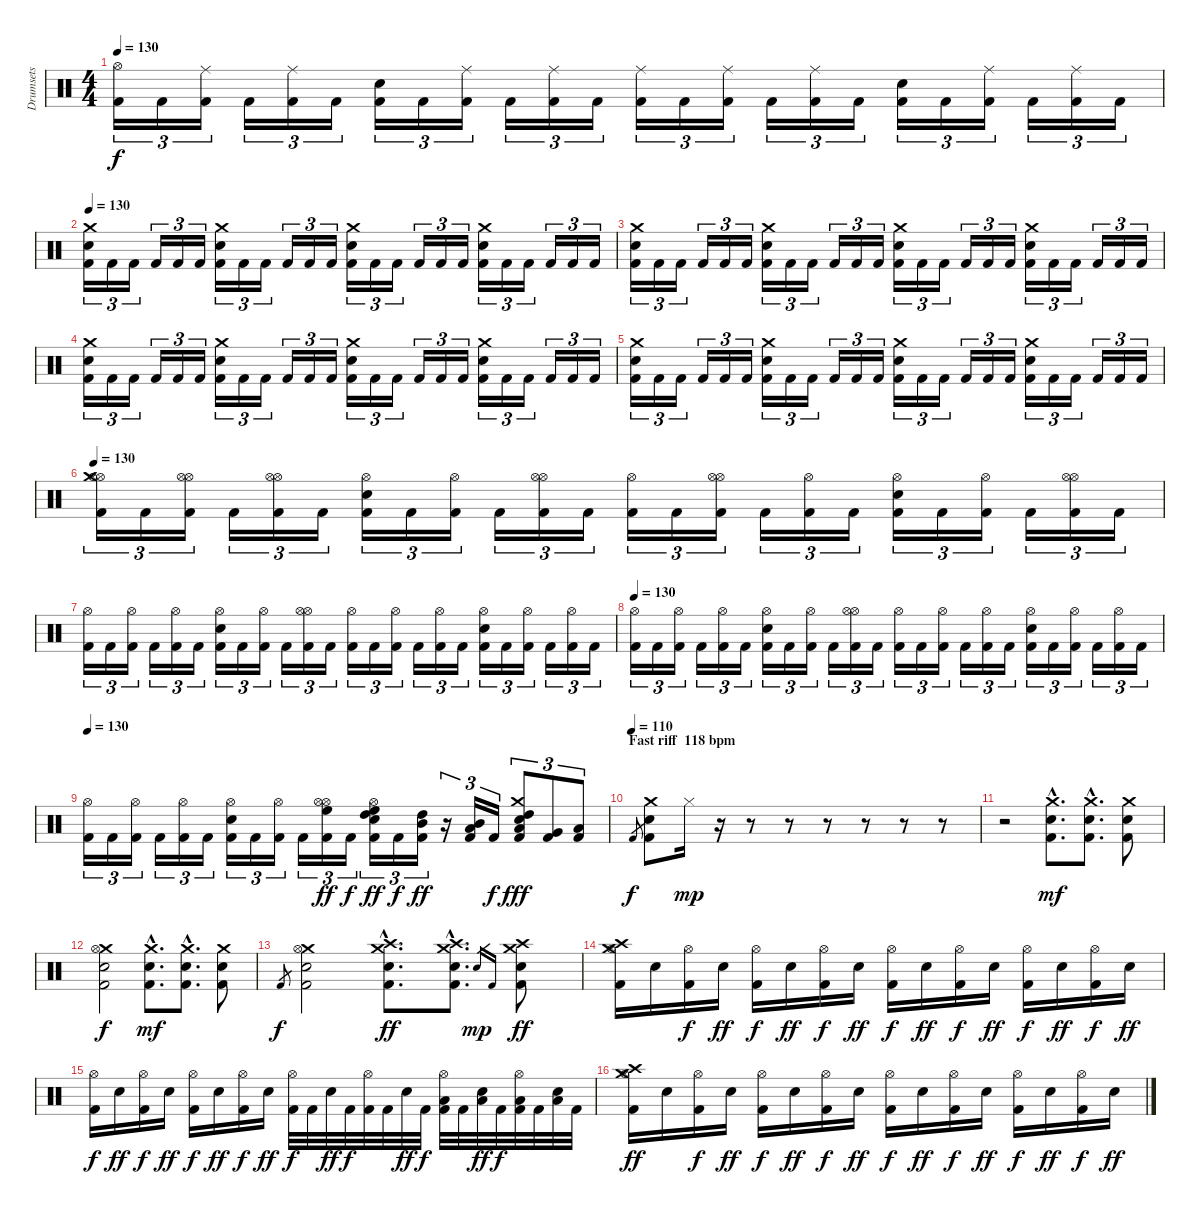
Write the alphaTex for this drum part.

\track ("Drumsets" "Drumsets") {instrument percussion}
\staff {score}
\articulation defaults
\ts (4 4)
\tempo 130
\clef neutral
\ks c
("Hi-Hat (open)" "Kick (hit) 2").16{tu (3 2) dy f} "Kick (hit) 2".16{tu (3 2)} ("Ride (middle)" "Kick (hit) 2").16{tu (3 2)} "Kick (hit) 2".16{tu (3 2)} ("Ride (middle)" "Kick (hit) 2").16{tu (3 2)} "Kick (hit) 2".16{tu (3 2)} ("Snare (hit) 2" "Kick (hit) 2").16{tu (3 2)} "Kick (hit) 2".16{tu (3 2)} ("Ride (middle)" "Kick (hit) 2").16{tu (3 2)} "Kick (hit) 2".16{tu (3 2)} ("Ride (middle)" "Kick (hit) 2").16{tu (3 2)} "Kick (hit) 2".16{tu (3 2)} ("Ride (middle)" "Kick (hit) 2").16{tu (3 2)} "Kick (hit) 2".16{tu (3 2)} ("Ride (middle)" "Kick (hit) 2").16{tu (3 2)} "Kick (hit) 2".16{tu (3 2)} ("Ride (middle)" "Kick (hit) 2").16{tu (3 2)} "Kick (hit) 2".16{tu (3 2)} ("Snare (hit) 2" "Kick (hit) 2").16{tu (3 2)} "Kick (hit) 2".16{tu (3 2)} ("Ride (middle)" "Kick (hit) 2").16{tu (3 2)} "Kick (hit) 2".16{tu (3 2)} ("Ride (middle)" "Kick (hit) 2").16{tu (3 2)} "Kick (hit) 2".16{tu (3 2)} |
\tempo 130
("Kick (hit) 2" "Electric Snare (hit)" "Crash medium (hit)").16{tu (3 2)} "Kick (hit) 2".16{tu (3 2)} "Kick (hit) 2".16{tu (3 2)} "Kick (hit) 2".16{tu (3 2)} "Kick (hit) 2".16{tu (3 2)} "Kick (hit) 2".16{tu (3 2)} ("Kick (hit) 2" "Electric Snare (hit)" "Crash medium (hit)").16{tu (3 2)} "Kick (hit) 2".16{tu (3 2)} "Kick (hit) 2".16{tu (3 2)} "Kick (hit) 2".16{tu (3 2)} "Kick (hit) 2".16{tu (3 2)} "Kick (hit) 2".16{tu (3 2)} ("Kick (hit) 2" "Electric Snare (hit)" "Crash medium (hit)").16{tu (3 2)} "Kick (hit) 2".16{tu (3 2)} "Kick (hit) 2".16{tu (3 2)} "Kick (hit) 2".16{tu (3 2)} "Kick (hit) 2".16{tu (3 2)} "Kick (hit) 2".16{tu (3 2)} ("Kick (hit) 2" "Electric Snare (hit)" "Crash medium (hit)").16{tu (3 2)} "Kick (hit) 2".16{tu (3 2)} "Kick (hit) 2".16{tu (3 2)} "Kick (hit) 2".16{tu (3 2)} "Kick (hit) 2".16{tu (3 2)} "Kick (hit) 2".16{tu (3 2)} |
("Kick (hit) 2" "Electric Snare (hit)" "Crash medium (hit)").16{tu (3 2)} "Kick (hit) 2".16{tu (3 2)} "Kick (hit) 2".16{tu (3 2)} "Kick (hit) 2".16{tu (3 2)} "Kick (hit) 2".16{tu (3 2)} "Kick (hit) 2".16{tu (3 2)} ("Kick (hit) 2" "Electric Snare (hit)" "Crash medium (hit)").16{tu (3 2)} "Kick (hit) 2".16{tu (3 2)} "Kick (hit) 2".16{tu (3 2)} "Kick (hit) 2".16{tu (3 2)} "Kick (hit) 2".16{tu (3 2)} "Kick (hit) 2".16{tu (3 2)} ("Kick (hit) 2" "Electric Snare (hit)" "Crash medium (hit)").16{tu (3 2)} "Kick (hit) 2".16{tu (3 2)} "Kick (hit) 2".16{tu (3 2)} "Kick (hit) 2".16{tu (3 2)} "Kick (hit) 2".16{tu (3 2)} "Kick (hit) 2".16{tu (3 2)} ("Kick (hit) 2" "Electric Snare (hit)" "Crash medium (hit)").16{tu (3 2)} "Kick (hit) 2".16{tu (3 2)} "Kick (hit) 2".16{tu (3 2)} "Kick (hit) 2".16{tu (3 2)} "Kick (hit) 2".16{tu (3 2)} "Kick (hit) 2".16{tu (3 2)} |
("Kick (hit) 2" "Electric Snare (hit)" "Crash medium (hit)").16{tu (3 2)} "Kick (hit) 2".16{tu (3 2)} "Kick (hit) 2".16{tu (3 2)} "Kick (hit) 2".16{tu (3 2)} "Kick (hit) 2".16{tu (3 2)} "Kick (hit) 2".16{tu (3 2)} ("Kick (hit) 2" "Electric Snare (hit)" "Crash medium (hit)").16{tu (3 2)} "Kick (hit) 2".16{tu (3 2)} "Kick (hit) 2".16{tu (3 2)} "Kick (hit) 2".16{tu (3 2)} "Kick (hit) 2".16{tu (3 2)} "Kick (hit) 2".16{tu (3 2)} ("Kick (hit) 2" "Electric Snare (hit)" "Crash medium (hit)").16{tu (3 2)} "Kick (hit) 2".16{tu (3 2)} "Kick (hit) 2".16{tu (3 2)} "Kick (hit) 2".16{tu (3 2)} "Kick (hit) 2".16{tu (3 2)} "Kick (hit) 2".16{tu (3 2)} ("Kick (hit) 2" "Electric Snare (hit)" "Crash medium (hit)").16{tu (3 2)} "Kick (hit) 2".16{tu (3 2)} "Kick (hit) 2".16{tu (3 2)} "Kick (hit) 2".16{tu (3 2)} "Kick (hit) 2".16{tu (3 2)} "Kick (hit) 2".16{tu (3 2)} |
("Kick (hit) 2" "Electric Snare (hit)" "Crash medium (hit)").16{tu (3 2)} "Kick (hit) 2".16{tu (3 2)} "Kick (hit) 2".16{tu (3 2)} "Kick (hit) 2".16{tu (3 2)} "Kick (hit) 2".16{tu (3 2)} "Kick (hit) 2".16{tu (3 2)} ("Kick (hit) 2" "Electric Snare (hit)" "Crash medium (hit)").16{tu (3 2)} "Kick (hit) 2".16{tu (3 2)} "Kick (hit) 2".16{tu (3 2)} "Kick (hit) 2".16{tu (3 2)} "Kick (hit) 2".16{tu (3 2)} "Kick (hit) 2".16{tu (3 2)} ("Kick (hit) 2" "Electric Snare (hit)" "Crash medium (hit)").16{tu (3 2)} "Kick (hit) 2".16{tu (3 2)} "Kick (hit) 2".16{tu (3 2)} "Kick (hit) 2".16{tu (3 2)} "Kick (hit) 2".16{tu (3 2)} "Kick (hit) 2".16{tu (3 2)} ("Kick (hit) 2" "Electric Snare (hit)" "Crash medium (hit)").16{tu (3 2)} "Kick (hit) 2".16{tu (3 2)} "Kick (hit) 2".16{tu (3 2)} "Kick (hit) 2".16{tu (3 2)} "Kick (hit) 2".16{tu (3 2)} "Kick (hit) 2".16{tu (3 2)} |
\tempo 130
("Hi-Hat (open)" "Hi-Hat (open)" "Crash medium (hit)" "Kick (hit) 2").16{tu (3 2)} "Kick (hit) 2".16{tu (3 2)} ("Hi-Hat (open)" "Hi-Hat (open)" "Kick (hit) 2").16{tu (3 2)} "Kick (hit) 2".16{tu (3 2)} ("Hi-Hat (open)" "Hi-Hat (open)" "Kick (hit) 2").16{tu (3 2)} "Kick (hit) 2".16{tu (3 2)} ("Snare (hit) 2" "Hi-Hat (open)" "Kick (hit) 2").16{tu (3 2)} "Kick (hit) 2".16{tu (3 2)} ("Hi-Hat (open)" "Kick (hit) 2").16{tu (3 2)} "Kick (hit) 2".16{tu (3 2)} ("Hi-Hat (open)" "Hi-Hat (open)" "Kick (hit) 2").16{tu (3 2)} "Kick (hit) 2".16{tu (3 2)} ("Hi-Hat (open)" "Kick (hit) 2").16{tu (3 2)} "Kick (hit) 2".16{tu (3 2)} ("Hi-Hat (open)" "Hi-Hat (open)" "Kick (hit) 2").16{tu (3 2)} "Kick (hit) 2".16{tu (3 2)} ("Hi-Hat (open)" "Kick (hit) 2").16{tu (3 2)} "Kick (hit) 2".16{tu (3 2)} ("Snare (hit) 2" "Hi-Hat (open)" "Kick (hit) 2").16{tu (3 2)} "Kick (hit) 2".16{tu (3 2)} ("Hi-Hat (open)" "Kick (hit) 2").16{tu (3 2)} "Kick (hit) 2".16{tu (3 2)} ("Hi-Hat (open)" "Hi-Hat (open)" "Kick (hit) 2").16{tu (3 2)} "Kick (hit) 2".16{tu (3 2)} |
("Hi-Hat (open)" "Kick (hit) 2").16{tu (3 2)} "Kick (hit) 2".16{tu (3 2)} ("Hi-Hat (open)" "Kick (hit) 2").16{tu (3 2)} "Kick (hit) 2".16{tu (3 2)} ("Hi-Hat (open)" "Kick (hit) 2").16{tu (3 2)} "Kick (hit) 2".16{tu (3 2)} ("Snare (hit) 2" "Hi-Hat (open)" "Kick (hit) 2").16{tu (3 2)} "Kick (hit) 2".16{tu (3 2)} ("Hi-Hat (open)" "Kick (hit) 2").16{tu (3 2)} "Kick (hit) 2".16{tu (3 2)} ("Hi-Hat (open)" "Hi-Hat (open)" "Kick (hit) 2").16{tu (3 2)} "Kick (hit) 2".16{tu (3 2)} ("Hi-Hat (open)" "Kick (hit) 2").16{tu (3 2)} "Kick (hit) 2".16{tu (3 2)} ("Hi-Hat (open)" "Kick (hit) 2").16{tu (3 2)} "Kick (hit) 2".16{tu (3 2)} ("Hi-Hat (open)" "Kick (hit) 2").16{tu (3 2)} "Kick (hit) 2".16{tu (3 2)} ("Snare (hit) 2" "Hi-Hat (open)" "Kick (hit) 2").16{tu (3 2)} "Kick (hit) 2".16{tu (3 2)} ("Hi-Hat (open)" "Kick (hit) 2").16{tu (3 2)} "Kick (hit) 2".16{tu (3 2)} ("Hi-Hat (open)" "Kick (hit) 2").16{tu (3 2)} "Kick (hit) 2".16{tu (3 2)} |
\tempo 130
("Hi-Hat (open)" "Kick (hit) 2").16{tu (3 2)} "Kick (hit) 2".16{tu (3 2)} ("Hi-Hat (open)" "Kick (hit) 2").16{tu (3 2)} "Kick (hit) 2".16{tu (3 2)} ("Hi-Hat (open)" "Kick (hit) 2").16{tu (3 2)} "Kick (hit) 2".16{tu (3 2)} ("Snare (hit) 2" "Hi-Hat (open)" "Kick (hit) 2").16{tu (3 2)} "Kick (hit) 2".16{tu (3 2)} ("Hi-Hat (open)" "Kick (hit) 2").16{tu (3 2)} "Kick (hit) 2".16{tu (3 2)} ("Hi-Hat (open)" "Hi-Hat (open)" "Kick (hit) 2").16{tu (3 2)} "Kick (hit) 2".16{tu (3 2)} ("Hi-Hat (open)" "Kick (hit) 2").16{tu (3 2)} "Kick (hit) 2".16{tu (3 2)} ("Hi-Hat (open)" "Kick (hit) 2").16{tu (3 2)} "Kick (hit) 2".16{tu (3 2)} ("Hi-Hat (open)" "Kick (hit) 2").16{tu (3 2)} "Kick (hit) 2".16{tu (3 2)} ("Snare (hit) 2" "Hi-Hat (open)" "Kick (hit) 2").16{tu (3 2)} "Kick (hit) 2".16{tu (3 2)} ("Hi-Hat (open)" "Kick (hit) 2").16{tu (3 2)} "Kick (hit) 2".16{tu (3 2)} ("Hi-Hat (open)" "Kick (hit) 2").16{tu (3 2)} "Kick (hit) 2".16{tu (3 2)} |
\tempo 130
("Hi-Hat (open)" "Kick (hit) 2").16{tu (3 2)} "Kick (hit) 2".16{tu (3 2)} ("Hi-Hat (open)" "Kick (hit) 2").16{tu (3 2)} "Kick (hit) 2".16{tu (3 2)} ("Hi-Hat (open)" "Kick (hit) 2").16{tu (3 2)} "Kick (hit) 2".16{tu (3 2)} ("Snare (hit) 2" "Hi-Hat (open)" "Kick (hit) 2").16{tu (3 2)} "Kick (hit) 2".16{tu (3 2)} ("Hi-Hat (open)" "Kick (hit) 2").16{tu (3 2)} "Kick (hit) 2".16{tu (3 2)} ("Hi-Hat (open)" "Hi-Hat (open)" "High Floor Tom (hit)" "Kick (hit) 2").16{tu (3 2) dy ff} "Kick (hit) 2".16{tu (3 2) dy f} ("Snare (hit) 2" "High Floor Tom (hit)" "Hi-Hat (open)" "High Tom (hit)" "Kick (hit) 2").16{tu (3 2) dy ff} "Kick (hit) 2".16{tu (3 2) dy f} ("High Tom (hit)" "Mid Tom (hit)" "Kick (hit) 2").16{tu (3 2) dy ff} r.16{tu (3 2)} ("Mid Tom (hit)" "Low Tom (hit)" "Kick (hit) 2").16{tu (3 2)} "Kick (hit) 2".16{tu (3 2) dy f} ("Snare (hit) 2" "Crash medium (hit)" "High Tom (hit)" "Low Tom (hit)" "Kick (hit) 2").8{tu (3 2) dy fff} ("Very Low Tom (hit)" "Kick (hit) 2").8{tu (3 2)} ("Low Floor Tom (hit)" "Kick (hit) 2").8{tu (3 2)} |
\section ("" "Fast riff  118 bpm")
\tempo (110)
"Kick (hit) 2".8{gr dy f} ("Kick (hit) 2" "Electric Snare (hit)" "Crash medium (hit)").8 "Hi-Hat (closed)".16{dy mp} r.16 r.8 r.8 r.8 r.8 r.8 r.8 |
r.2 ("Crash medium (hit)"{hac} "Electric Snare (hit)"{hac} "Kick (hit) 2"{hac}).8{d dy mf} ("Crash medium (hit)"{hac} "Electric Snare (hit)"{hac} "Kick (hit) 2"{hac}).8{d} ("Crash medium (hit)" "Electric Snare (hit)" "Kick (hit) 2").8 |
("Kick (hit) 2" "Crash medium (hit)" "Electric Snare (hit)" "Hi-Hat (open)").2{dy f} ("Electric Snare (hit)"{hac} "Crash medium (hit)"{hac} "Kick (hit) 2"{hac}).8{d dy mf} ("Electric Snare (hit)"{hac} "Crash medium (hit)"{hac} "Kick (hit) 2"{hac}).8{d} ("Electric Snare (hit)" "Crash medium (hit)" "Kick (hit) 2").8 |
"Kick (hit) 2".8{gr dy f} ("Kick (hit) 2" "Crash medium (hit)" "Hi-Hat (open)" "Electric Snare (hit)").2 ("Electric Snare (hit)"{hac} "Crash high (hit)"{hac} "Kick (hit) 2"{hac} "Crash medium (hit)"{hac}).8{d dy ff} ("Electric Snare (hit)"{hac} "Crash high (hit)"{hac} "Kick (hit) 2"{hac} "Crash medium (hit)"{hac}).8{d} "Electric Snare (hit)".16{gr dy mp} "Kick (hit) 2".16{gr} ("Electric Snare (hit)" "Crash high (hit)" "Kick (hit) 2" "Crash medium (hit)").8{dy ff} |
("Crash medium (hit)" "Hi-Hat (open)" "Kick (hit) 2" "Crash high (hit)").16 "Electric Snare (hit)".16 ("Hi-Hat (open)" "Kick (hit) 2").16{dy f} "Electric Snare (hit)".16{dy ff} ("Hi-Hat (open)" "Kick (hit) 2").16{dy f} "Electric Snare (hit)".16{dy ff} ("Hi-Hat (open)" "Kick (hit) 2").16{dy f} "Electric Snare (hit)".16{dy ff} ("Hi-Hat (open)" "Kick (hit) 2").16{dy f} "Electric Snare (hit)".16{dy ff} ("Hi-Hat (open)" "Kick (hit) 2").16{dy f} "Electric Snare (hit)".16{dy ff} ("Hi-Hat (open)" "Kick (hit) 2").16{dy f} "Electric Snare (hit)".16{dy ff} ("Hi-Hat (open)" "Kick (hit) 2").16{dy f} "Electric Snare (hit)".16{dy ff} |
("Hi-Hat (open)" "Kick (hit) 2").16{dy f} "Electric Snare (hit)".16{dy ff} ("Hi-Hat (open)" "Kick (hit) 2").16{dy f} "Electric Snare (hit)".16{dy ff} ("Hi-Hat (open)" "Kick (hit) 2").16{dy f} "Electric Snare (hit)".16{dy ff} ("Hi-Hat (open)" "Kick (hit) 2").16{dy f} "Electric Snare (hit)".16{dy ff} ("Hi-Hat (open)" "Kick (hit) 2").32{dy f} "Kick (hit) 2".32 "Electric Snare (hit)".32{dy ff} "Kick (hit) 2".32{dy f} ("Hi-Hat (open)" "Kick (hit) 2").32 "Kick (hit) 2".32 "Electric Snare (hit)".32{dy ff} "Kick (hit) 2".32{dy f} ("Low Tom (hit)" "Hi-Hat (open)" "Kick (hit) 2").32 "Kick (hit) 2".32 ("Low Tom (hit)" "Electric Snare (hit)").32{dy ff} "Kick (hit) 2".32{dy f} ("Low Tom (hit)" "Hi-Hat (open)" "Kick (hit) 2").32 "Kick (hit) 2".32 ("Low Tom (hit)" "Electric Snare (hit)").32 "Kick (hit) 2".32 |
("Crash medium (hit)" "Hi-Hat (open)" "Kick (hit) 2" "Crash high (hit)").16{dy ff} "Electric Snare (hit)".16 ("Hi-Hat (open)" "Kick (hit) 2").16{dy f} "Electric Snare (hit)".16{dy ff} ("Hi-Hat (open)" "Kick (hit) 2").16{dy f} "Electric Snare (hit)".16{dy ff} ("Hi-Hat (open)" "Kick (hit) 2").16{dy f} "Electric Snare (hit)".16{dy ff} ("Hi-Hat (open)" "Kick (hit) 2").16{dy f} "Electric Snare (hit)".16{dy ff} ("Hi-Hat (open)" "Kick (hit) 2").16{dy f} "Electric Snare (hit)".16{dy ff} ("Hi-Hat (open)" "Kick (hit) 2").16{dy f} "Electric Snare (hit)".16{dy ff} ("Hi-Hat (open)" "Kick (hit) 2").16{dy f} "Electric Snare (hit)".16{dy ff}
